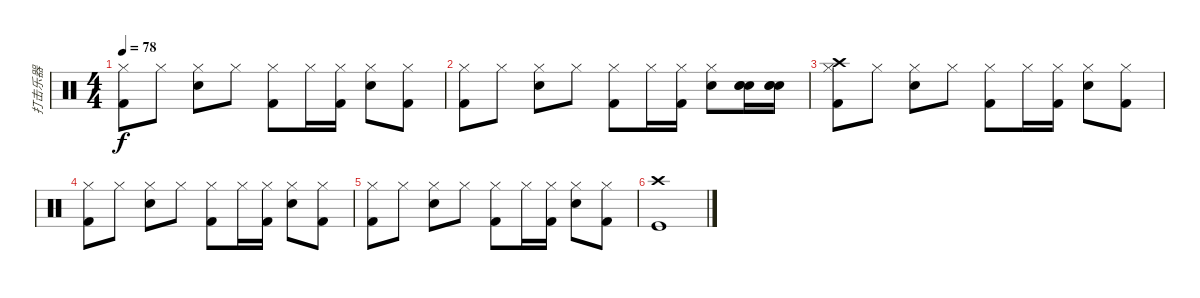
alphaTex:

\track ("打击乐器" "打击乐器") {instrument percussion}
\staff {score}
\articulation defaults
\ts (4 4)
\tempo 78
\clef neutral
\ks c
("Kick (hit) 2" "Hi-Hat (closed)").8{dy f} "Hi-Hat (closed)".8 ("Electric Snare (hit)" "Hi-Hat (closed)").8 "Hi-Hat (closed)".8 ("Kick (hit) 2" "Hi-Hat (closed)").8 "Hi-Hat (closed)".16 ("Kick (hit) 2" "Hi-Hat (closed)").16 ("Electric Snare (hit)" "Hi-Hat (closed)").8 ("Kick (hit) 2" "Hi-Hat (closed)").8 |
("Kick (hit) 2" "Hi-Hat (closed)").8 "Hi-Hat (closed)".8 ("Electric Snare (hit)" "Hi-Hat (closed)").8 "Hi-Hat (closed)".8 ("Kick (hit) 2" "Hi-Hat (closed)").8 "Hi-Hat (closed)".16 ("Kick (hit) 2" "Hi-Hat (closed)").16 ("Electric Snare (hit)" "Hi-Hat (closed)").8 ("Electric Snare (hit)" "Electric Snare (hit)" "Electric Snare (hit)").16 ("Electric Snare (hit)" "Electric Snare (hit)" "Electric Snare (hit)").16 |
("Kick (hit) 2" "Crash high (hit)" "Hi-Hat (closed)").8 "Hi-Hat (closed)".8 ("Electric Snare (hit)" "Hi-Hat (closed)").8 "Hi-Hat (closed)".8 ("Kick (hit) 2" "Hi-Hat (closed)").8 "Hi-Hat (closed)".16 ("Kick (hit) 2" "Hi-Hat (closed)").16 ("Electric Snare (hit)" "Hi-Hat (closed)").8 ("Kick (hit) 2" "Hi-Hat (closed)").8 |
("Kick (hit) 2" "Hi-Hat (closed)").8 "Hi-Hat (closed)".8 ("Electric Snare (hit)" "Hi-Hat (closed)").8 "Hi-Hat (closed)".8 ("Kick (hit) 2" "Hi-Hat (closed)").8 "Hi-Hat (closed)".16 ("Kick (hit) 2" "Hi-Hat (closed)").16 ("Electric Snare (hit)" "Hi-Hat (closed)").8 ("Kick (hit) 2" "Hi-Hat (closed)").8 |
("Kick (hit) 2" "Hi-Hat (closed)").8 "Hi-Hat (closed)".8 ("Electric Snare (hit)" "Hi-Hat (closed)").8 "Hi-Hat (closed)".8 ("Kick (hit) 2" "Hi-Hat (closed)").8 "Hi-Hat (closed)".16 ("Kick (hit) 2" "Hi-Hat (closed)").16 ("Electric Snare (hit)" "Hi-Hat (closed)").8 ("Kick (hit) 2" "Hi-Hat (closed)").8 |
("Crash high (hit)" "Kick (hit)").1
